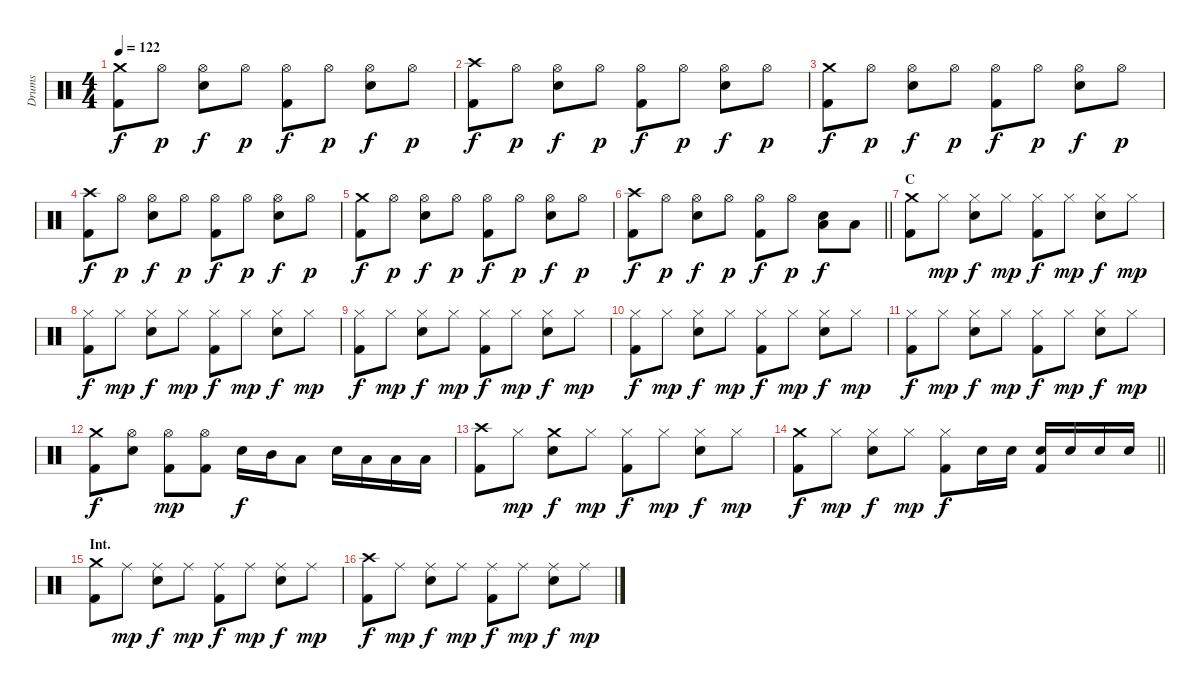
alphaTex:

\track ("Drums" "Drums") {instrument percussion}
\staff {score}
\articulation defaults
\ts (4 4)
\tempo 122
\clef neutral
\ks c
("Crash medium (hit)" "Kick (hit) 2").8{dy f} "Hi-Hat (open)".8{dy p} ("Hi-Hat (open)" "Electric Snare (hit)").8{dy f} "Hi-Hat (open)".8{dy p} ("Hi-Hat (open)" "Kick (hit) 2").8{dy f} "Hi-Hat (open)".8{dy p} ("Hi-Hat (open)" "Electric Snare (hit)").8{dy f} "Hi-Hat (open)".8{dy p} |
("Crash high (hit)" "Kick (hit) 2").8{dy f} "Hi-Hat (open)".8{dy p} ("Hi-Hat (open)" "Electric Snare (hit)").8{dy f} "Hi-Hat (open)".8{dy p} ("Hi-Hat (open)" "Kick (hit) 2").8{dy f} "Hi-Hat (open)".8{dy p} ("Hi-Hat (open)" "Electric Snare (hit)").8{dy f} "Hi-Hat (open)".8{dy p} |
("Crash medium (hit)" "Kick (hit) 2").8{dy f} "Hi-Hat (open)".8{dy p} ("Hi-Hat (open)" "Electric Snare (hit)").8{dy f} "Hi-Hat (open)".8{dy p} ("Hi-Hat (open)" "Kick (hit) 2").8{dy f} "Hi-Hat (open)".8{dy p} ("Hi-Hat (open)" "Electric Snare (hit)").8{dy f} "Hi-Hat (open)".8{dy p} |
("Crash high (hit)" "Kick (hit) 2").8{dy f} "Hi-Hat (open)".8{dy p} ("Hi-Hat (open)" "Electric Snare (hit)").8{dy f} "Hi-Hat (open)".8{dy p} ("Hi-Hat (open)" "Kick (hit) 2").8{dy f} "Hi-Hat (open)".8{dy p} ("Hi-Hat (open)" "Electric Snare (hit)").8{dy f} "Hi-Hat (open)".8{dy p} |
("Crash medium (hit)" "Kick (hit) 2").8{dy f} "Hi-Hat (open)".8{dy p} ("Hi-Hat (open)" "Electric Snare (hit)").8{dy f} "Hi-Hat (open)".8{dy p} ("Hi-Hat (open)" "Kick (hit) 2").8{dy f} "Hi-Hat (open)".8{dy p} ("Hi-Hat (open)" "Electric Snare (hit)").8{dy f} "Hi-Hat (open)".8{dy p} |
\barLineRight lightlight
("Crash high (hit)" "Kick (hit) 2").8{dy f} "Hi-Hat (open)".8{dy p} ("Hi-Hat (open)" "Electric Snare (hit)").8{dy f} "Hi-Hat (open)".8{dy p} ("Hi-Hat (open)" "Kick (hit) 2").8{dy f} "Hi-Hat (open)".8{dy p} ("Electric Snare (hit)" "Low Floor Tom (hit)").8{dy f} "Low Tom (hit)".8 |
\section ("" "C")
("Crash medium (hit)" "Kick (hit) 2").8 "Hi-Hat (closed)".8{dy mp} ("Hi-Hat (closed)" "Electric Snare (hit)").8{dy f} "Hi-Hat (closed)".8{dy mp} ("Hi-Hat (closed)" "Kick (hit) 2").8{dy f} "Hi-Hat (closed)".8{dy mp} ("Hi-Hat (closed)" "Electric Snare (hit)").8{dy f} "Hi-Hat (closed)".8{dy mp} |
("Hi-Hat (closed)" "Kick (hit) 2").8{dy f} "Hi-Hat (closed)".8{dy mp} ("Hi-Hat (closed)" "Electric Snare (hit)").8{dy f} "Hi-Hat (closed)".8{dy mp} ("Hi-Hat (closed)" "Kick (hit) 2").8{dy f} "Hi-Hat (closed)".8{dy mp} ("Hi-Hat (closed)" "Electric Snare (hit)").8{dy f} "Hi-Hat (closed)".8{dy mp} |
("Hi-Hat (closed)" "Kick (hit) 2").8{dy f} "Hi-Hat (closed)".8{dy mp} ("Hi-Hat (closed)" "Electric Snare (hit)").8{dy f} "Hi-Hat (closed)".8{dy mp} ("Hi-Hat (closed)" "Kick (hit) 2").8{dy f} "Hi-Hat (closed)".8{dy mp} ("Hi-Hat (closed)" "Electric Snare (hit)").8{dy f} "Hi-Hat (closed)".8{dy mp} |
("Hi-Hat (closed)" "Kick (hit) 2").8{dy f} "Hi-Hat (closed)".8{dy mp} ("Hi-Hat (closed)" "Electric Snare (hit)").8{dy f} "Hi-Hat (closed)".8{dy mp} ("Hi-Hat (closed)" "Kick (hit) 2").8{dy f} "Hi-Hat (closed)".8{dy mp} ("Hi-Hat (closed)" "Electric Snare (hit)").8{dy f} "Hi-Hat (closed)".8{dy mp} |
("Hi-Hat (closed)" "Kick (hit) 2").8{dy f} "Hi-Hat (closed)".8{dy mp} ("Hi-Hat (closed)" "Electric Snare (hit)").8{dy f} "Hi-Hat (closed)".8{dy mp} ("Hi-Hat (closed)" "Kick (hit) 2").8{dy f} "Hi-Hat (closed)".8{dy mp} ("Hi-Hat (closed)" "Electric Snare (hit)").8{dy f} "Hi-Hat (closed)".8{dy mp} |
("Crash medium (hit)" "Kick (hit) 2").8{dy f} ("Electric Snare (hit)" "Hi-Hat (open)").8 ("Kick (hit) 2" "Hi-Hat (open)").8{dy mp} ("Kick (hit) 2" "Hi-Hat (open)").8 "Electric Snare (hit)".16{dy f} "Mid Tom (hit)".16 "Low Tom (hit)".8 "Electric Snare (hit)".16 "Low Tom (hit)".16 "Low Floor Tom (hit)".16 "Low Floor Tom (hit)".16 |
("Crash high (hit)" "Kick (hit) 2").8 "Hi-Hat (closed)".8{dy mp} ("Crash medium (hit)" "Electric Snare (hit)").8{dy f} "Hi-Hat (closed)".8{dy mp} ("Hi-Hat (closed)" "Kick (hit) 2").8{dy f} "Hi-Hat (closed)".8{dy mp} ("Hi-Hat (closed)" "Electric Snare (hit)").8{dy f} "Hi-Hat (closed)".8{dy mp} |
\barLineRight lightlight
("Crash medium (hit)" "Kick (hit) 2").8{dy f} "Hi-Hat (closed)".8{dy mp} ("Hi-Hat (closed)" "Electric Snare (hit)").8{dy f} "Hi-Hat (closed)".8{dy mp} ("Hi-Hat (closed)" "Kick (hit) 2").8{dy f} "Electric Snare (hit)".16 "Electric Snare (hit)".16 ("Electric Snare (hit)" "Kick (hit) 2").16 "Electric Snare (hit)".16 "Electric Snare (hit)".16 "Electric Snare (hit)".16 |
\section ("" "Int.")
("Kick (hit) 2" "Crash medium (hit)").8 "Ride (middle)".8{dy mp} ("Electric Snare (hit)" "Ride (middle)").8{dy f} "Ride (middle)".8{dy mp} ("Kick (hit) 2" "Ride (middle)").8{dy f} "Ride (middle)".8{dy mp} ("Electric Snare (hit)" "Ride (middle)").8{dy f} "Ride (middle)".8{dy mp} |
("Kick (hit) 2" "Crash high (hit)").8{dy f} "Ride (middle)".8{dy mp} ("Electric Snare (hit)" "Ride (middle)").8{dy f} "Ride (middle)".8{dy mp} ("Kick (hit) 2" "Ride (middle)").8{dy f} "Ride (middle)".8{dy mp} ("Electric Snare (hit)" "Ride (middle)").8{dy f} "Ride (middle)".8{dy mp}
